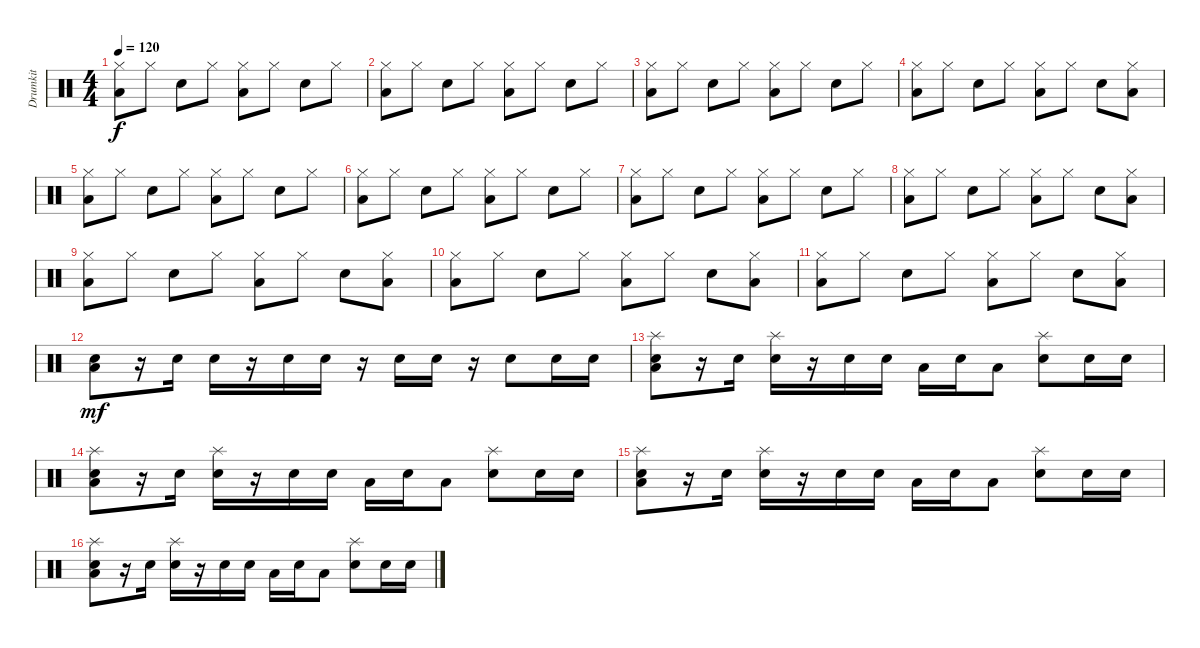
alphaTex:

\track ("Drumkit" "Drumkit") {instrument percussion}
\staff {score}
\articulation defaults
\ts (4 4)
\tempo 120
\clef neutral
\ks c
("Hi-Hat (closed)" "Low Floor Tom (hit)").8{dy f} "Hi-Hat (closed)".8 "Snare (hit) 2".8 "Hi-Hat (closed)".8 ("Hi-Hat (closed)" "Low Floor Tom (hit)").8 "Hi-Hat (closed)".8 "Snare (hit) 2".8 "Hi-Hat (closed)".8 |
("Hi-Hat (closed)" "Low Floor Tom (hit)").8 "Hi-Hat (closed)".8 "Snare (hit) 2".8 "Hi-Hat (closed)".8 ("Hi-Hat (closed)" "Low Floor Tom (hit)").8 "Hi-Hat (closed)".8 "Snare (hit) 2".8 "Hi-Hat (closed)".8 |
("Hi-Hat (closed)" "Low Floor Tom (hit)").8 "Hi-Hat (closed)".8 "Snare (hit) 2".8 "Hi-Hat (closed)".8 ("Hi-Hat (closed)" "Low Floor Tom (hit)").8 "Hi-Hat (closed)".8 "Snare (hit) 2".8 "Hi-Hat (closed)".8 |
("Hi-Hat (closed)" "Low Floor Tom (hit)").8 "Hi-Hat (closed)".8 "Snare (hit) 2".8 "Hi-Hat (closed)".8 ("Hi-Hat (closed)" "Low Floor Tom (hit)").8 "Hi-Hat (closed)".8 "Snare (hit) 2".8 ("Hi-Hat (closed)" "Low Floor Tom (hit)").8 |
("Hi-Hat (closed)" "Low Floor Tom (hit)").8 "Hi-Hat (closed)".8 "Snare (hit) 2".8 "Hi-Hat (closed)".8 ("Hi-Hat (closed)" "Low Floor Tom (hit)").8 "Hi-Hat (closed)".8 "Snare (hit) 2".8 "Hi-Hat (closed)".8 |
("Hi-Hat (closed)" "Low Floor Tom (hit)").8 "Hi-Hat (closed)".8 "Snare (hit) 2".8 "Hi-Hat (closed)".8 ("Hi-Hat (closed)" "Low Floor Tom (hit)").8 "Hi-Hat (closed)".8 "Snare (hit) 2".8 "Hi-Hat (closed)".8 |
("Hi-Hat (closed)" "Low Floor Tom (hit)").8 "Hi-Hat (closed)".8 "Snare (hit) 2".8 "Hi-Hat (closed)".8 ("Hi-Hat (closed)" "Low Floor Tom (hit)").8 "Hi-Hat (closed)".8 "Snare (hit) 2".8 "Hi-Hat (closed)".8 |
("Hi-Hat (closed)" "Low Floor Tom (hit)").8 "Hi-Hat (closed)".8 "Snare (hit) 2".8 "Hi-Hat (closed)".8 ("Hi-Hat (closed)" "Low Floor Tom (hit)").8 "Hi-Hat (closed)".8 "Snare (hit) 2".8 ("Hi-Hat (closed)" "Low Floor Tom (hit)").8 |
("Hi-Hat (closed)" "Low Floor Tom (hit)").8 "Hi-Hat (closed)".8 "Snare (hit) 2".8 "Hi-Hat (closed)".8 ("Hi-Hat (closed)" "Low Floor Tom (hit)").8 "Hi-Hat (closed)".8 "Snare (hit) 2".8 ("Hi-Hat (closed)" "Low Floor Tom (hit)").8 |
("Hi-Hat (closed)" "Low Floor Tom (hit)").8 "Hi-Hat (closed)".8 "Snare (hit) 2".8 "Hi-Hat (closed)".8 ("Hi-Hat (closed)" "Low Floor Tom (hit)").8 "Hi-Hat (closed)".8 "Snare (hit) 2".8 ("Hi-Hat (closed)" "Low Floor Tom (hit)").8 |
("Hi-Hat (closed)" "Low Floor Tom (hit)").8 "Hi-Hat (closed)".8 "Snare (hit) 2".8 "Hi-Hat (closed)".8 ("Hi-Hat (closed)" "Low Floor Tom (hit)").8 "Hi-Hat (closed)".8 "Snare (hit) 2".8 ("Hi-Hat (closed)" "Low Floor Tom (hit)").8 |
("Low Floor Tom (hit)" "Snare (hit) 2").8{dy mf} r.16 "Snare (hit) 2".16 "Snare (hit) 2".16 r.16 "Snare (hit) 2".16 "Snare (hit) 2".16 r.16 "Snare (hit) 2".16 "Snare (hit) 2".16 r.16 "Snare (hit) 2".8 "Snare (hit) 2".16 "Snare (hit) 2".16 |
("Low Floor Tom (hit)" "Snare (hit) 2" "Splash (hit)").8 r.16 "Snare (hit) 2".16 ("Snare (hit) 2" "Splash (hit)").16 r.16 "Snare (hit) 2".16 "Snare (hit) 2".16 "Low Floor Tom (hit)".16 "Snare (hit) 2".16 "Low Floor Tom (hit)".8 ("Snare (hit) 2" "Splash (hit)").8 "Snare (hit) 2".16 "Snare (hit) 2".16 |
("Low Floor Tom (hit)" "Snare (hit) 2" "Splash (hit)").8 r.16 "Snare (hit) 2".16 ("Snare (hit) 2" "Splash (hit)").16 r.16 "Snare (hit) 2".16 "Snare (hit) 2".16 "Low Floor Tom (hit)".16 "Snare (hit) 2".16 "Low Floor Tom (hit)".8 ("Snare (hit) 2" "Splash (hit)").8 "Snare (hit) 2".16 "Snare (hit) 2".16 |
("Low Floor Tom (hit)" "Snare (hit) 2" "Splash (hit)").8 r.16 "Snare (hit) 2".16 ("Snare (hit) 2" "Splash (hit)").16 r.16 "Snare (hit) 2".16 "Snare (hit) 2".16 "Low Floor Tom (hit)".16 "Snare (hit) 2".16 "Low Floor Tom (hit)".8 ("Snare (hit) 2" "Splash (hit)").8 "Snare (hit) 2".16 "Snare (hit) 2".16 |
("Low Floor Tom (hit)" "Snare (hit) 2" "Splash (hit)").8 r.16 "Snare (hit) 2".16 ("Snare (hit) 2" "Splash (hit)").16 r.16 "Snare (hit) 2".16 "Snare (hit) 2".16 "Low Floor Tom (hit)".16 "Snare (hit) 2".16 "Low Floor Tom (hit)".8 ("Snare (hit) 2" "Splash (hit)").8 "Snare (hit) 2".16 "Snare (hit) 2".16
